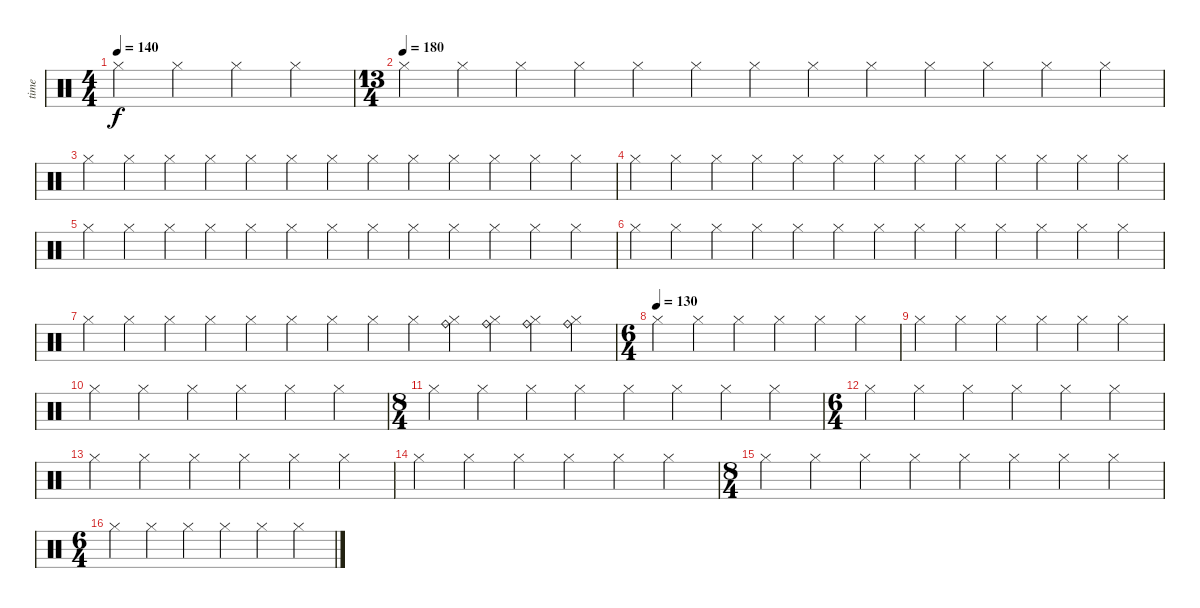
\track ("time" "time") {instrument percussion}
\staff {score}
\articulation defaults
\ts (4 4)
\tempo 140
\tempo 180
\tempo 140
\clef neutral
\ks c "Hi-Hat (closed)".4{dy f} "Hi-Hat (closed)".4 "Hi-Hat (closed)".4 "Hi-Hat (closed)".4
|
\ts (13 4)
\tempo (180)
"Hi-Hat (closed)".4 "Hi-Hat (closed)".4 "Hi-Hat (closed)".4 "Hi-Hat (closed)".4 "Hi-Hat (closed)".4 "Hi-Hat (closed)".4 "Hi-Hat (closed)".4 "Hi-Hat (closed)".4 "Hi-Hat (closed)".4 "Hi-Hat (closed)".4 "Hi-Hat (closed)".4 "Hi-Hat (closed)".4 "Hi-Hat (closed)".4 |
"Hi-Hat (closed)".4 "Hi-Hat (closed)".4 "Hi-Hat (closed)".4 "Hi-Hat (closed)".4 "Hi-Hat (closed)".4 "Hi-Hat (closed)".4 "Hi-Hat (closed)".4 "Hi-Hat (closed)".4 "Hi-Hat (closed)".4 "Hi-Hat (closed)".4 "Hi-Hat (closed)".4 "Hi-Hat (closed)".4 "Hi-Hat (closed)".4 |
"Hi-Hat (closed)".4 "Hi-Hat (closed)".4 "Hi-Hat (closed)".4 "Hi-Hat (closed)".4 "Hi-Hat (closed)".4 "Hi-Hat (closed)".4 "Hi-Hat (closed)".4 "Hi-Hat (closed)".4 "Hi-Hat (closed)".4 "Hi-Hat (closed)".4 "Hi-Hat (closed)".4 "Hi-Hat (closed)".4 "Hi-Hat (closed)".4 |
"Hi-Hat (closed)".4 "Hi-Hat (closed)".4 "Hi-Hat (closed)".4 "Hi-Hat (closed)".4 "Hi-Hat (closed)".4 "Hi-Hat (closed)".4 "Hi-Hat (closed)".4 "Hi-Hat (closed)".4 "Hi-Hat (closed)".4 "Hi-Hat (closed)".4 "Hi-Hat (closed)".4 "Hi-Hat (closed)".4 "Hi-Hat (closed)".4 |
"Hi-Hat (closed)".4 "Hi-Hat (closed)".4 "Hi-Hat (closed)".4 "Hi-Hat (closed)".4 "Hi-Hat (closed)".4 "Hi-Hat (closed)".4 "Hi-Hat (closed)".4 "Hi-Hat (closed)".4 "Hi-Hat (closed)".4 "Hi-Hat (closed)".4 "Hi-Hat (closed)".4 "Hi-Hat (closed)".4 "Hi-Hat (closed)".4 |
"Hi-Hat (closed)".4 "Hi-Hat (closed)".4 "Hi-Hat (closed)".4 "Hi-Hat (closed)".4 "Hi-Hat (closed)".4 "Hi-Hat (closed)".4 "Hi-Hat (closed)".4 "Hi-Hat (closed)".4 "Hi-Hat (closed)".4 ("Hi-Hat (closed)" "Ride (bell)").4 ("Hi-Hat (closed)" "Ride (bell)").4 ("Hi-Hat (closed)" "Ride (bell)").4 ("Hi-Hat (closed)" "Ride (bell)").4 |
\ts (6 4)
\tempo (130)
"Hi-Hat (closed)".4 "Hi-Hat (closed)".4 "Hi-Hat (closed)".4 "Hi-Hat (closed)".4 "Hi-Hat (closed)".4 "Hi-Hat (closed)".4 |
"Hi-Hat (closed)".4 "Hi-Hat (closed)".4 "Hi-Hat (closed)".4 "Hi-Hat (closed)".4 "Hi-Hat (closed)".4 "Hi-Hat (closed)".4 |
"Hi-Hat (closed)".4 "Hi-Hat (closed)".4 "Hi-Hat (closed)".4 "Hi-Hat (closed)".4 "Hi-Hat (closed)".4 "Hi-Hat (closed)".4 |
\ts (8 4)
"Hi-Hat (closed)".4 "Hi-Hat (closed)".4 "Hi-Hat (closed)".4 "Hi-Hat (closed)".4 "Hi-Hat (closed)".4 "Hi-Hat (closed)".4 "Hi-Hat (closed)".4 "Hi-Hat (closed)".4 |
\ts (6 4)
"Hi-Hat (closed)".4 "Hi-Hat (closed)".4 "Hi-Hat (closed)".4 "Hi-Hat (closed)".4 "Hi-Hat (closed)".4 "Hi-Hat (closed)".4 |
"Hi-Hat (closed)".4 "Hi-Hat (closed)".4 "Hi-Hat (closed)".4 "Hi-Hat (closed)".4 "Hi-Hat (closed)".4 "Hi-Hat (closed)".4 |
"Hi-Hat (closed)".4 "Hi-Hat (closed)".4 "Hi-Hat (closed)".4 "Hi-Hat (closed)".4 "Hi-Hat (closed)".4 "Hi-Hat (closed)".4 |
\ts (8 4)
"Hi-Hat (closed)".4 "Hi-Hat (closed)".4 "Hi-Hat (closed)".4 "Hi-Hat (closed)".4 "Hi-Hat (closed)".4 "Hi-Hat (closed)".4 "Hi-Hat (closed)".4 "Hi-Hat (closed)".4 |
\ts (6 4)
"Hi-Hat (closed)".4 "Hi-Hat (closed)".4 "Hi-Hat (closed)".4 "Hi-Hat (closed)".4 "Hi-Hat (closed)".4 "Hi-Hat (closed)".4
